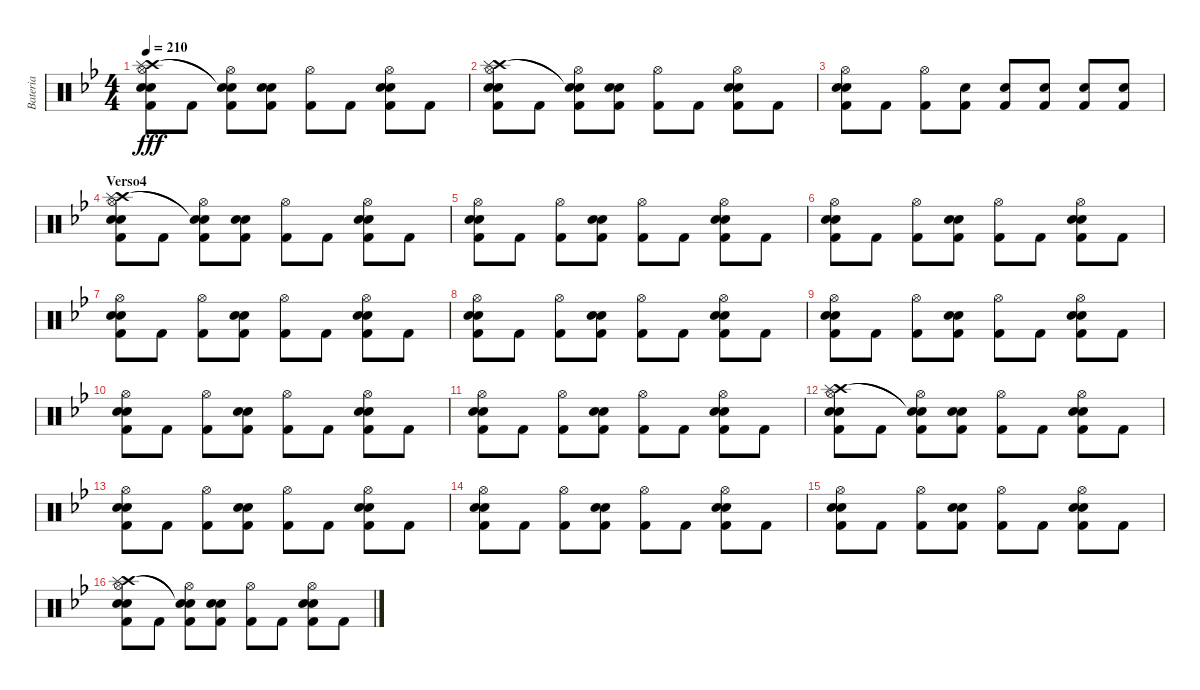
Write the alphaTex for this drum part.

\track ("Bateria" "Bateria") {instrument percussion}
\staff {score}
\articulation defaults
\ts (4 4)
\tempo 210
\clef neutral
\ks gminor
("Hi-Hat (open)" "Crash high (hit)" "Splash (hit)" "Snare (hit) 2" "Kick (hit) 2" "Electric Snare (hit)").8{dy fff} "Kick (hit) 2".8 ("Hi-Hat (open)" "Snare (hit)"{t} "Snare (hit)"{t} "Kick (hit) 2").8 ("Snare (hit) 2" "Kick (hit) 2" "Electric Snare (hit)").8 ("Hi-Hat (open)" "Kick (hit) 2").8 "Kick (hit) 2".8 ("Hi-Hat (open)" "Snare (hit) 2" "Kick (hit) 2" "Electric Snare (hit)").8 "Kick (hit) 2".8 |
("Hi-Hat (open)" "Crash high (hit)" "Splash (hit)" "Snare (hit) 2" "Kick (hit) 2" "Electric Snare (hit)").8 "Kick (hit) 2".8 ("Hi-Hat (open)" "Snare (hit)"{t} "Snare (hit)"{t} "Kick (hit) 2").8 ("Snare (hit) 2" "Kick (hit) 2" "Electric Snare (hit)").8 ("Hi-Hat (open)" "Kick (hit) 2").8 "Kick (hit) 2".8 ("Hi-Hat (open)" "Snare (hit) 2" "Kick (hit) 2" "Electric Snare (hit)").8 "Kick (hit) 2".8 |
("Hi-Hat (open)" "Snare (hit) 2" "Kick (hit) 2" "Electric Snare (hit)").8 "Kick (hit) 2".8 ("Hi-Hat (open)" "Kick (hit) 2").8 ("Snare (hit) 2" "Kick (hit) 2").8 ("Snare (hit) 2" "Kick (hit) 2").8 ("Snare (hit) 2" "Kick (hit) 2").8 ("Snare (hit) 2" "Kick (hit) 2").8 ("Snare (hit) 2" "Kick (hit) 2").8 |
\section ("" "Verso4")
("Hi-Hat (open)" "Crash high (hit)" "Splash (hit)" "Snare (hit) 2" "Electric Snare (hit)" "Kick (hit) 2").8 "Kick (hit) 2".8 ("Hi-Hat (open)" "Snare (hit)"{t} "Snare (hit)"{t} "Kick (hit) 2").8 ("Snare (hit) 2" "Electric Snare (hit)" "Kick (hit) 2").8 ("Hi-Hat (open)" "Kick (hit) 2").8 "Kick (hit) 2".8 ("Hi-Hat (open)" "Snare (hit) 2" "Electric Snare (hit)" "Kick (hit) 2").8 "Kick (hit) 2".8 |
("Hi-Hat (open)" "Snare (hit) 2" "Kick (hit) 2" "Electric Snare (hit)").8 "Kick (hit) 2".8 ("Hi-Hat (open)" "Kick (hit) 2").8 ("Snare (hit) 2" "Kick (hit) 2" "Electric Snare (hit)").8 ("Hi-Hat (open)" "Kick (hit) 2").8 "Kick (hit) 2".8 ("Hi-Hat (open)" "Snare (hit) 2" "Kick (hit) 2" "Electric Snare (hit)").8 "Kick (hit) 2".8 |
("Hi-Hat (open)" "Snare (hit) 2" "Kick (hit) 2" "Electric Snare (hit)").8 "Kick (hit) 2".8 ("Hi-Hat (open)" "Kick (hit) 2").8 ("Snare (hit) 2" "Kick (hit) 2" "Electric Snare (hit)").8 ("Hi-Hat (open)" "Kick (hit) 2").8 "Kick (hit) 2".8 ("Hi-Hat (open)" "Snare (hit) 2" "Kick (hit) 2" "Electric Snare (hit)").8 "Kick (hit) 2".8 |
("Hi-Hat (open)" "Snare (hit) 2" "Kick (hit) 2" "Electric Snare (hit)").8 "Kick (hit) 2".8 ("Hi-Hat (open)" "Kick (hit) 2").8 ("Snare (hit) 2" "Kick (hit) 2" "Electric Snare (hit)").8 ("Hi-Hat (open)" "Kick (hit) 2").8 "Kick (hit) 2".8 ("Hi-Hat (open)" "Snare (hit) 2" "Kick (hit) 2" "Electric Snare (hit)").8 "Kick (hit) 2".8 |
("Hi-Hat (open)" "Snare (hit) 2" "Kick (hit) 2" "Electric Snare (hit)").8 "Kick (hit) 2".8 ("Hi-Hat (open)" "Kick (hit) 2").8 ("Snare (hit) 2" "Kick (hit) 2" "Electric Snare (hit)").8 ("Hi-Hat (open)" "Kick (hit) 2").8 "Kick (hit) 2".8 ("Hi-Hat (open)" "Snare (hit) 2" "Kick (hit) 2" "Electric Snare (hit)").8 "Kick (hit) 2".8 |
("Hi-Hat (open)" "Snare (hit) 2" "Kick (hit) 2" "Electric Snare (hit)").8 "Kick (hit) 2".8 ("Hi-Hat (open)" "Kick (hit) 2").8 ("Snare (hit) 2" "Kick (hit) 2" "Electric Snare (hit)").8 ("Hi-Hat (open)" "Kick (hit) 2").8 "Kick (hit) 2".8 ("Hi-Hat (open)" "Snare (hit) 2" "Kick (hit) 2" "Electric Snare (hit)").8 "Kick (hit) 2".8 |
("Hi-Hat (open)" "Snare (hit) 2" "Kick (hit) 2" "Electric Snare (hit)").8 "Kick (hit) 2".8 ("Hi-Hat (open)" "Kick (hit) 2").8 ("Snare (hit) 2" "Kick (hit) 2" "Electric Snare (hit)").8 ("Hi-Hat (open)" "Kick (hit) 2").8 "Kick (hit) 2".8 ("Hi-Hat (open)" "Snare (hit) 2" "Kick (hit) 2" "Electric Snare (hit)").8 "Kick (hit) 2".8 |
("Hi-Hat (open)" "Snare (hit) 2" "Kick (hit) 2" "Electric Snare (hit)").8 "Kick (hit) 2".8 ("Hi-Hat (open)" "Kick (hit) 2").8 ("Snare (hit) 2" "Kick (hit) 2" "Electric Snare (hit)").8 ("Hi-Hat (open)" "Kick (hit) 2").8 "Kick (hit) 2".8 ("Hi-Hat (open)" "Snare (hit) 2" "Kick (hit) 2" "Electric Snare (hit)").8 "Kick (hit) 2".8 |
("Hi-Hat (open)" "Crash high (hit)" "Splash (hit)" "Snare (hit) 2" "Kick (hit) 2" "Electric Snare (hit)").8 "Kick (hit) 2".8 ("Hi-Hat (open)" "Snare (hit)"{t} "Snare (hit)"{t} "Kick (hit) 2").8 ("Snare (hit) 2" "Kick (hit) 2" "Electric Snare (hit)").8 ("Hi-Hat (open)" "Kick (hit) 2").8 "Kick (hit) 2".8 ("Hi-Hat (open)" "Snare (hit) 2" "Kick (hit) 2" "Electric Snare (hit)").8 "Kick (hit) 2".8 |
("Hi-Hat (open)" "Snare (hit) 2" "Kick (hit) 2" "Electric Snare (hit)").8 "Kick (hit) 2".8 ("Hi-Hat (open)" "Kick (hit) 2").8 ("Snare (hit) 2" "Kick (hit) 2" "Electric Snare (hit)").8 ("Hi-Hat (open)" "Kick (hit) 2").8 "Kick (hit) 2".8 ("Hi-Hat (open)" "Snare (hit) 2" "Kick (hit) 2" "Electric Snare (hit)").8 "Kick (hit) 2".8 |
("Hi-Hat (open)" "Snare (hit) 2" "Kick (hit) 2" "Electric Snare (hit)").8 "Kick (hit) 2".8 ("Hi-Hat (open)" "Kick (hit) 2").8 ("Snare (hit) 2" "Kick (hit) 2" "Electric Snare (hit)").8 ("Hi-Hat (open)" "Kick (hit) 2").8 "Kick (hit) 2".8 ("Hi-Hat (open)" "Snare (hit) 2" "Kick (hit) 2" "Electric Snare (hit)").8 "Kick (hit) 2".8 |
("Hi-Hat (open)" "Snare (hit) 2" "Kick (hit) 2" "Electric Snare (hit)").8 "Kick (hit) 2".8 ("Hi-Hat (open)" "Kick (hit) 2").8 ("Snare (hit) 2" "Kick (hit) 2" "Electric Snare (hit)").8 ("Hi-Hat (open)" "Kick (hit) 2").8 "Kick (hit) 2".8 ("Hi-Hat (open)" "Snare (hit) 2" "Kick (hit) 2" "Electric Snare (hit)").8 "Kick (hit) 2".8 |
("Hi-Hat (open)" "Crash high (hit)" "Splash (hit)" "Snare (hit) 2" "Kick (hit) 2" "Electric Snare (hit)").8 "Kick (hit) 2".8 ("Hi-Hat (open)" "Snare (hit)"{t} "Snare (hit)"{t} "Kick (hit) 2").8 ("Snare (hit) 2" "Kick (hit) 2" "Electric Snare (hit)").8 ("Hi-Hat (open)" "Kick (hit) 2").8 "Kick (hit) 2".8 ("Hi-Hat (open)" "Snare (hit) 2" "Kick (hit) 2" "Electric Snare (hit)").8 "Kick (hit) 2".8
